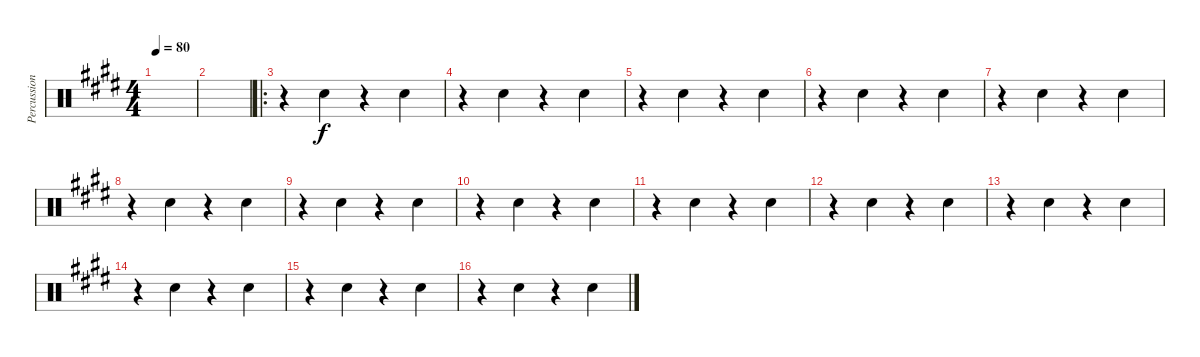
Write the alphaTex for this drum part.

\track ("Percussion" "Percussion") {instrument percussion}
\staff {score}
\articulation defaults
\ts (4 4)
\tempo 80
\clef neutral
\ks c#minor
|
|
\ro
r.4 "Hand Clap (hit)".4 r.4 "Hand Clap (hit)".4 |
r.4 "Hand Clap (hit)".4 r.4 "Hand Clap (hit)".4 |
r.4 "Hand Clap (hit)".4 r.4 "Hand Clap (hit)".4 |
r.4 "Hand Clap (hit)".4 r.4 "Hand Clap (hit)".4 |
r.4 "Hand Clap (hit)".4 r.4 "Hand Clap (hit)".4 |
r.4 "Hand Clap (hit)".4 r.4 "Hand Clap (hit)".4 |
r.4 "Hand Clap (hit)".4 r.4 "Hand Clap (hit)".4 |
r.4 "Hand Clap (hit)".4 r.4 "Hand Clap (hit)".4 |
r.4 "Hand Clap (hit)".4 r.4 "Hand Clap (hit)".4 |
r.4 "Hand Clap (hit)".4 r.4 "Hand Clap (hit)".4 |
r.4 "Hand Clap (hit)".4 r.4 "Hand Clap (hit)".4 |
r.4 "Hand Clap (hit)".4 r.4 "Hand Clap (hit)".4 |
r.4 "Hand Clap (hit)".4 r.4 "Hand Clap (hit)".4 |
r.4 "Hand Clap (hit)".4 r.4 "Hand Clap (hit)".4
